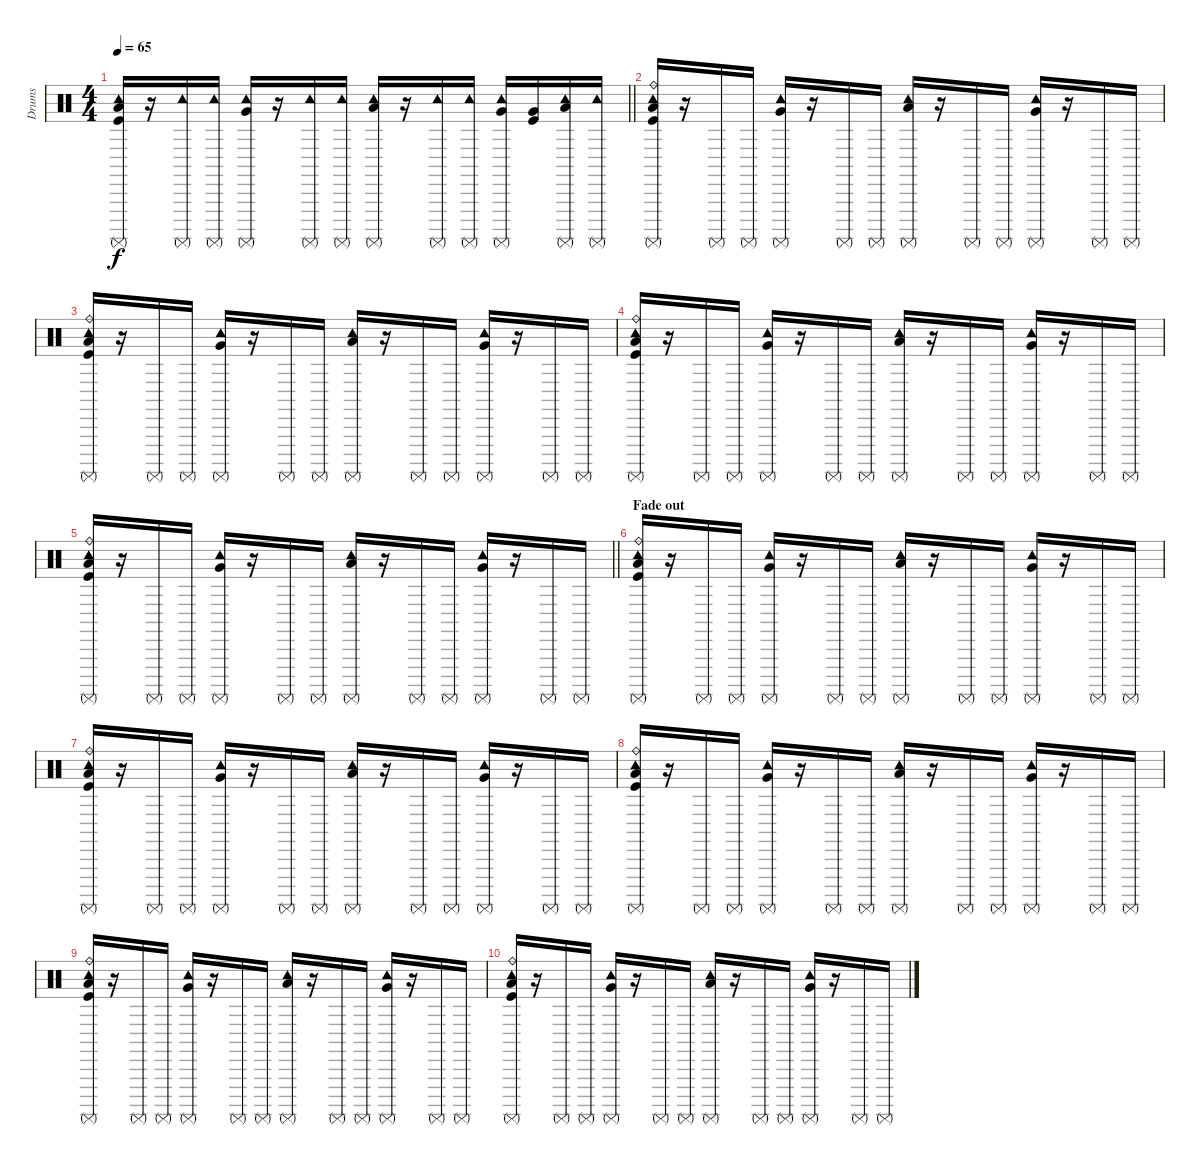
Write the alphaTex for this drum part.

\track ("Drums" "Drums") {instrument percussion}
\staff {score}
\articulation defaults
\ts (4 4)
\tempo 65
\clef neutral
\barLineRight lightlight
\ks c
("Tambourine (hit)" "Low Floor Tom (hit)" "Surdo (mute)" "Kick (hit)").16{dy f} r.16 ("Tambourine (hit)" "Surdo (mute)").16 ("Tambourine (hit)" "Surdo (mute)").16 ("Tambourine (hit)" "Very Low Tom (hit)" "Surdo (mute)").16 r.16 ("Tambourine (hit)" "Surdo (mute)").16 ("Tambourine (hit)" "Surdo (mute)").16 ("Tambourine (hit)" "Low Floor Tom (hit)" "Surdo (mute)").16 r.16 ("Tambourine (hit)" "Surdo (mute)").16 ("Tambourine (hit)" "Surdo (mute)").16 ("Tambourine (hit)" "Very Low Tom (hit)" "Surdo (mute)").16 ("Very Low Tom (hit)" "Kick (hit)").16 ("Tambourine (hit)" "Low Floor Tom (hit)" "Surdo (mute)").16 ("Tambourine (hit)" "Surdo (mute)").16 |
("Ride (bell)" "Tambourine (hit)" "Low Floor Tom (hit)" "Surdo (mute)" "Kick (hit)").16 r.16 "Surdo (mute)".16 "Surdo (mute)".16 ("Tambourine (hit)" "Very Low Tom (hit)" "Surdo (mute)").16 r.16 "Surdo (mute)".16 "Surdo (mute)".16 ("Tambourine (hit)" "Low Floor Tom (hit)" "Surdo (mute)").16 r.16 "Surdo (mute)".16 "Surdo (mute)".16 ("Tambourine (hit)" "Very Low Tom (hit)" "Surdo (mute)").16 r.16 "Surdo (mute)".16 "Surdo (mute)".16 |
("Ride (bell)" "Tambourine (hit)" "Low Floor Tom (hit)" "Surdo (mute)" "Kick (hit)").16 r.16 "Surdo (mute)".16 "Surdo (mute)".16 ("Tambourine (hit)" "Very Low Tom (hit)" "Surdo (mute)").16 r.16 "Surdo (mute)".16 "Surdo (mute)".16 ("Tambourine (hit)" "Low Floor Tom (hit)" "Surdo (mute)").16 r.16 "Surdo (mute)".16 "Surdo (mute)".16 ("Tambourine (hit)" "Very Low Tom (hit)" "Surdo (mute)").16 r.16 "Surdo (mute)".16 "Surdo (mute)".16 |
("Ride (bell)" "Tambourine (hit)" "Low Floor Tom (hit)" "Surdo (mute)" "Kick (hit)").16 r.16 "Surdo (mute)".16 "Surdo (mute)".16 ("Tambourine (hit)" "Very Low Tom (hit)" "Surdo (mute)").16 r.16 "Surdo (mute)".16 "Surdo (mute)".16 ("Tambourine (hit)" "Low Floor Tom (hit)" "Surdo (mute)").16 r.16 "Surdo (mute)".16 "Surdo (mute)".16 ("Tambourine (hit)" "Very Low Tom (hit)" "Surdo (mute)").16 r.16 "Surdo (mute)".16 "Surdo (mute)".16 |
\barLineRight lightlight
("Ride (bell)" "Tambourine (hit)" "Low Floor Tom (hit)" "Surdo (mute)" "Kick (hit)").16 r.16 "Surdo (mute)".16 "Surdo (mute)".16 ("Tambourine (hit)" "Very Low Tom (hit)" "Surdo (mute)").16 r.16 "Surdo (mute)".16 "Surdo (mute)".16 ("Tambourine (hit)" "Low Floor Tom (hit)" "Surdo (mute)").16 r.16 "Surdo (mute)".16 "Surdo (mute)".16 ("Tambourine (hit)" "Very Low Tom (hit)" "Surdo (mute)").16 r.16 "Surdo (mute)".16 "Surdo (mute)".16 |
\section ("" "Fade out")
("Ride (bell)" "Tambourine (hit)" "Low Floor Tom (hit)" "Surdo (mute)" "Kick (hit)").16 r.16 "Surdo (mute)".16 "Surdo (mute)".16 ("Tambourine (hit)" "Very Low Tom (hit)" "Surdo (mute)").16 r.16 "Surdo (mute)".16 "Surdo (mute)".16 ("Tambourine (hit)" "Low Floor Tom (hit)" "Surdo (mute)").16 r.16 "Surdo (mute)".16 "Surdo (mute)".16 ("Tambourine (hit)" "Very Low Tom (hit)" "Surdo (mute)").16 r.16 "Surdo (mute)".16 "Surdo (mute)".16 |
("Ride (bell)" "Tambourine (hit)" "Low Floor Tom (hit)" "Surdo (mute)" "Kick (hit)").16 r.16 "Surdo (mute)".16 "Surdo (mute)".16 ("Tambourine (hit)" "Very Low Tom (hit)" "Surdo (mute)").16 r.16 "Surdo (mute)".16 "Surdo (mute)".16 ("Tambourine (hit)" "Low Floor Tom (hit)" "Surdo (mute)").16 r.16 "Surdo (mute)".16 "Surdo (mute)".16 ("Tambourine (hit)" "Very Low Tom (hit)" "Surdo (mute)").16 r.16 "Surdo (mute)".16 "Surdo (mute)".16 |
("Ride (bell)" "Tambourine (hit)" "Low Floor Tom (hit)" "Surdo (mute)" "Kick (hit)").16 r.16 "Surdo (mute)".16 "Surdo (mute)".16 ("Tambourine (hit)" "Very Low Tom (hit)" "Surdo (mute)").16 r.16 "Surdo (mute)".16 "Surdo (mute)".16 ("Tambourine (hit)" "Low Floor Tom (hit)" "Surdo (mute)").16 r.16 "Surdo (mute)".16 "Surdo (mute)".16 ("Tambourine (hit)" "Very Low Tom (hit)" "Surdo (mute)").16 r.16 "Surdo (mute)".16 "Surdo (mute)".16 |
("Ride (bell)" "Tambourine (hit)" "Low Floor Tom (hit)" "Surdo (mute)" "Kick (hit)").16 r.16 "Surdo (mute)".16 "Surdo (mute)".16 ("Tambourine (hit)" "Very Low Tom (hit)" "Surdo (mute)").16 r.16 "Surdo (mute)".16 "Surdo (mute)".16 ("Tambourine (hit)" "Low Floor Tom (hit)" "Surdo (mute)").16 r.16 "Surdo (mute)".16 "Surdo (mute)".16 ("Tambourine (hit)" "Very Low Tom (hit)" "Surdo (mute)").16 r.16 "Surdo (mute)".16 "Surdo (mute)".16 |
("Ride (bell)" "Tambourine (hit)" "Low Floor Tom (hit)" "Surdo (mute)" "Kick (hit)").16 r.16 "Surdo (mute)".16 "Surdo (mute)".16 ("Tambourine (hit)" "Very Low Tom (hit)" "Surdo (mute)").16 r.16 "Surdo (mute)".16 "Surdo (mute)".16 ("Tambourine (hit)" "Low Floor Tom (hit)" "Surdo (mute)").16 r.16 "Surdo (mute)".16 "Surdo (mute)".16 ("Tambourine (hit)" "Very Low Tom (hit)" "Surdo (mute)").16 r.16 "Surdo (mute)".16 "Surdo (mute)".16
